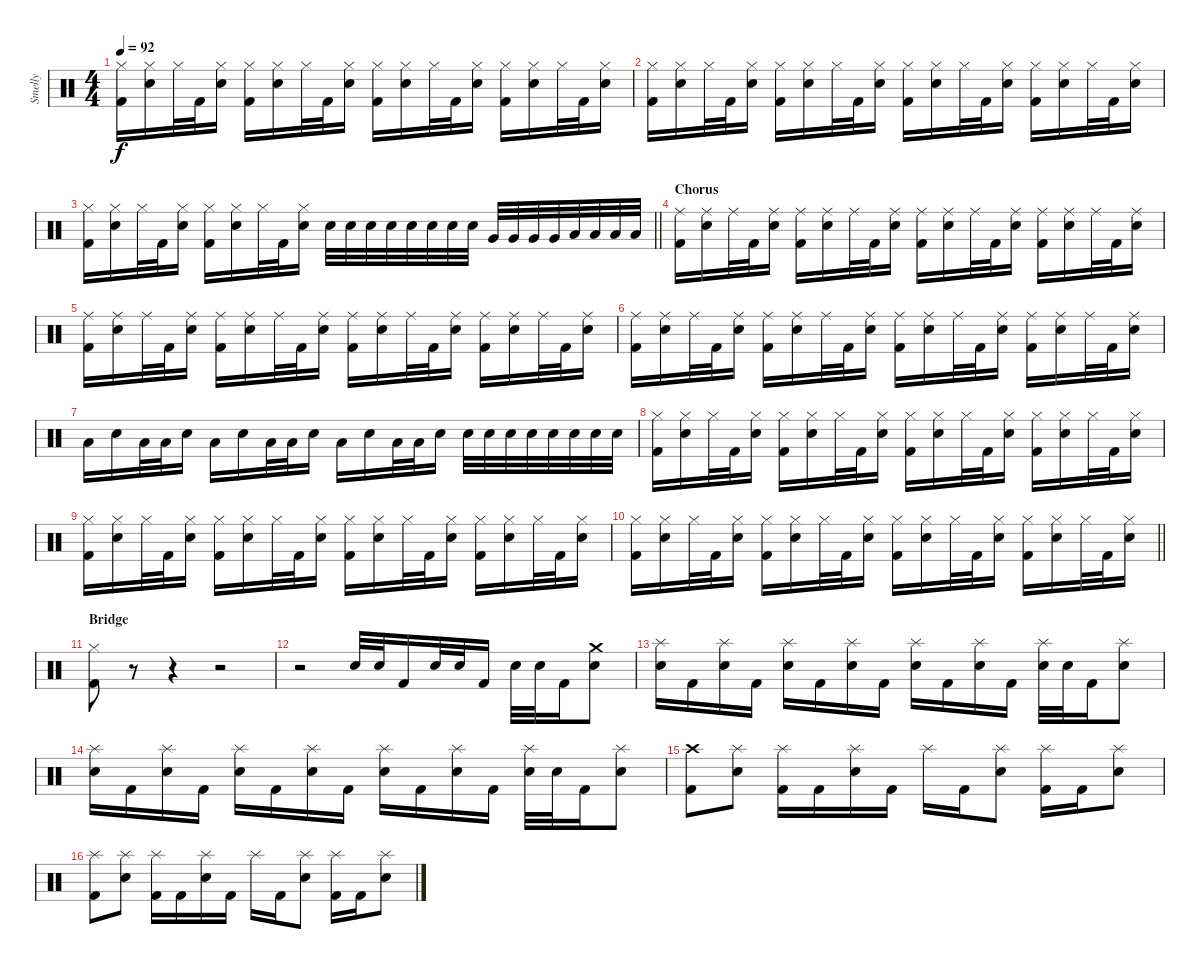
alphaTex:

\track ("Smelly" "Smelly") {instrument percussion}
\staff {score}
\articulation defaults
\ts (4 4)
\tempo 92
\clef neutral
\ks c
("Hi-Hat (closed)" "Kick (hit) 2").16{dy f} ("Hi-Hat (closed)" "Electric Snare (hit)").16 "Hi-Hat (closed)".32 "Kick (hit) 2".32 ("Hi-Hat (closed)" "Electric Snare (hit)").16 ("Hi-Hat (closed)" "Kick (hit) 2").16 ("Hi-Hat (closed)" "Electric Snare (hit)").16 "Hi-Hat (closed)".32 "Kick (hit) 2".32 ("Hi-Hat (closed)" "Electric Snare (hit)").16 ("Hi-Hat (closed)" "Kick (hit) 2").16 ("Hi-Hat (closed)" "Electric Snare (hit)").16 "Hi-Hat (closed)".32 "Kick (hit) 2".32 ("Hi-Hat (closed)" "Electric Snare (hit)").16 ("Hi-Hat (closed)" "Kick (hit) 2").16 ("Hi-Hat (closed)" "Electric Snare (hit)").16 "Hi-Hat (closed)".32 "Kick (hit) 2".32 ("Hi-Hat (closed)" "Electric Snare (hit)").16 |
("Hi-Hat (closed)" "Kick (hit) 2").16 ("Hi-Hat (closed)" "Electric Snare (hit)").16 "Hi-Hat (closed)".32 "Kick (hit) 2".32 ("Hi-Hat (closed)" "Electric Snare (hit)").16 ("Hi-Hat (closed)" "Kick (hit) 2").16 ("Hi-Hat (closed)" "Electric Snare (hit)").16 "Hi-Hat (closed)".32 "Kick (hit) 2".32 ("Hi-Hat (closed)" "Electric Snare (hit)").16 ("Hi-Hat (closed)" "Kick (hit) 2").16 ("Hi-Hat (closed)" "Electric Snare (hit)").16 "Hi-Hat (closed)".32 "Kick (hit) 2".32 ("Hi-Hat (closed)" "Electric Snare (hit)").16 ("Hi-Hat (closed)" "Kick (hit) 2").16 ("Hi-Hat (closed)" "Electric Snare (hit)").16 "Hi-Hat (closed)".32 "Kick (hit) 2".32 ("Hi-Hat (closed)" "Electric Snare (hit)").16 |
\barLineRight lightlight
("Hi-Hat (closed)" "Kick (hit) 2").16 ("Hi-Hat (closed)" "Electric Snare (hit)").16 "Hi-Hat (closed)".32 "Kick (hit) 2".32 ("Hi-Hat (closed)" "Electric Snare (hit)").16 ("Hi-Hat (closed)" "Kick (hit) 2").16 ("Hi-Hat (closed)" "Electric Snare (hit)").16 "Hi-Hat (closed)".32 "Kick (hit) 2".32 ("Hi-Hat (closed)" "Electric Snare (hit)").16 "Electric Snare (hit)".32 "Electric Snare (hit)".32 "Electric Snare (hit)".32 "Electric Snare (hit)".32 "Electric Snare (hit)".32 "Electric Snare (hit)".32 "Electric Snare (hit)".32 "Electric Snare (hit)".32 "Very Low Tom (hit)".32 "Very Low Tom (hit)".32 "Very Low Tom (hit)".32 "Very Low Tom (hit)".32 "Low Floor Tom (hit)".32 "Low Floor Tom (hit)".32 "Low Floor Tom (hit)".32 "Low Floor Tom (hit)".32 |
\section ("" "Chorus")
("Ride (middle)" "Kick (hit) 2").16 ("Ride (middle)" "Electric Snare (hit)").16 "Ride (middle)".32 "Kick (hit) 2".32 ("Ride (middle)" "Electric Snare (hit)").16 ("Ride (middle)" "Kick (hit) 2").16 ("Ride (middle)" "Electric Snare (hit)").16 "Ride (middle)".32 "Kick (hit) 2".32 ("Ride (middle)" "Electric Snare (hit)").16 ("Ride (middle)" "Kick (hit) 2").16 ("Ride (middle)" "Electric Snare (hit)").16 "Ride (middle)".32 "Kick (hit) 2".32 ("Ride (middle)" "Electric Snare (hit)").16 ("Ride (middle)" "Kick (hit) 2").16 ("Ride (middle)" "Electric Snare (hit)").16 "Ride (middle)".32 "Kick (hit) 2".32 ("Ride (middle)" "Electric Snare (hit)").16 |
("Ride (middle)" "Kick (hit) 2").16 ("Ride (middle)" "Electric Snare (hit)").16 "Ride (middle)".32 "Kick (hit) 2".32 ("Ride (middle)" "Electric Snare (hit)").16 ("Ride (middle)" "Kick (hit) 2").16 ("Ride (middle)" "Electric Snare (hit)").16 "Ride (middle)".32 "Kick (hit) 2".32 ("Ride (middle)" "Electric Snare (hit)").16 ("Ride (middle)" "Kick (hit) 2").16 ("Ride (middle)" "Electric Snare (hit)").16 "Ride (middle)".32 "Kick (hit) 2".32 ("Ride (middle)" "Electric Snare (hit)").16 ("Ride (middle)" "Kick (hit) 2").16 ("Ride (middle)" "Electric Snare (hit)").16 "Ride (middle)".32 "Kick (hit) 2".32 ("Ride (middle)" "Electric Snare (hit)").16 |
("Ride (middle)" "Kick (hit) 2").16 ("Ride (middle)" "Electric Snare (hit)").16 "Ride (middle)".32 "Kick (hit) 2".32 ("Ride (middle)" "Electric Snare (hit)").16 ("Ride (middle)" "Kick (hit) 2").16 ("Ride (middle)" "Electric Snare (hit)").16 "Ride (middle)".32 "Kick (hit) 2".32 ("Ride (middle)" "Electric Snare (hit)").16 ("Ride (middle)" "Kick (hit) 2").16 ("Ride (middle)" "Electric Snare (hit)").16 "Ride (middle)".32 "Kick (hit) 2".32 ("Ride (middle)" "Electric Snare (hit)").16 ("Ride (middle)" "Kick (hit) 2").16 ("Ride (middle)" "Electric Snare (hit)").16 "Ride (middle)".32 "Kick (hit) 2".32 ("Ride (middle)" "Electric Snare (hit)").16 |
"Low Floor Tom (hit)".16 "Electric Snare (hit)".16 "Low Floor Tom (hit)".32 "Low Floor Tom (hit)".32 "Electric Snare (hit)".16 "Low Floor Tom (hit)".16 "Electric Snare (hit)".16 "Low Floor Tom (hit)".32 "Low Floor Tom (hit)".32 "Electric Snare (hit)".16 "Low Floor Tom (hit)".16 "Electric Snare (hit)".16 "Low Floor Tom (hit)".32 "Low Floor Tom (hit)".32 "Electric Snare (hit)".16 "Electric Snare (hit)".32 "Electric Snare (hit)".32 "Electric Snare (hit)".32 "Electric Snare (hit)".32 "Electric Snare (hit)".32 "Electric Snare (hit)".32 "Electric Snare (hit)".32 "Electric Snare (hit)".32 |
("Hi-Hat (closed)" "Kick (hit) 2").16 ("Hi-Hat (closed)" "Electric Snare (hit)").16 "Hi-Hat (closed)".32 "Kick (hit) 2".32 ("Hi-Hat (closed)" "Electric Snare (hit)").16 ("Hi-Hat (closed)" "Kick (hit) 2").16 ("Hi-Hat (closed)" "Electric Snare (hit)").16 "Hi-Hat (closed)".32 "Kick (hit) 2".32 ("Hi-Hat (closed)" "Electric Snare (hit)").16 ("Hi-Hat (closed)" "Kick (hit) 2").16 ("Hi-Hat (closed)" "Electric Snare (hit)").16 "Hi-Hat (closed)".32 "Kick (hit) 2".32 ("Hi-Hat (closed)" "Electric Snare (hit)").16 ("Hi-Hat (closed)" "Kick (hit) 2").16 ("Hi-Hat (closed)" "Electric Snare (hit)").16 "Hi-Hat (closed)".32 "Kick (hit) 2".32 ("Hi-Hat (closed)" "Electric Snare (hit)").16 |
("Hi-Hat (closed)" "Kick (hit) 2").16 ("Hi-Hat (closed)" "Electric Snare (hit)").16 "Hi-Hat (closed)".32 "Kick (hit) 2".32 ("Hi-Hat (closed)" "Electric Snare (hit)").16 ("Hi-Hat (closed)" "Kick (hit) 2").16 ("Hi-Hat (closed)" "Electric Snare (hit)").16 "Hi-Hat (closed)".32 "Kick (hit) 2".32 ("Hi-Hat (closed)" "Electric Snare (hit)").16 ("Hi-Hat (closed)" "Kick (hit) 2").16 ("Hi-Hat (closed)" "Electric Snare (hit)").16 "Hi-Hat (closed)".32 "Kick (hit) 2".32 ("Hi-Hat (closed)" "Electric Snare (hit)").16 ("Hi-Hat (closed)" "Kick (hit) 2").16 ("Hi-Hat (closed)" "Electric Snare (hit)").16 "Hi-Hat (closed)".32 "Kick (hit) 2".32 ("Hi-Hat (closed)" "Electric Snare (hit)").16 |
\barLineRight lightlight
("Hi-Hat (closed)" "Kick (hit) 2").16 ("Hi-Hat (closed)" "Electric Snare (hit)").16 "Hi-Hat (closed)".32 "Kick (hit) 2".32 ("Hi-Hat (closed)" "Electric Snare (hit)").16 ("Hi-Hat (closed)" "Kick (hit) 2").16 ("Hi-Hat (closed)" "Electric Snare (hit)").16 "Hi-Hat (closed)".32 "Kick (hit) 2".32 ("Hi-Hat (closed)" "Electric Snare (hit)").16 ("Hi-Hat (closed)" "Kick (hit) 2").16 ("Hi-Hat (closed)" "Electric Snare (hit)").16 "Hi-Hat (closed)".32 "Kick (hit) 2".32 ("Hi-Hat (closed)" "Electric Snare (hit)").16 ("Hi-Hat (closed)" "Kick (hit) 2").16 ("Hi-Hat (closed)" "Electric Snare (hit)").16 "Hi-Hat (closed)".32 "Kick (hit) 2".32 ("Hi-Hat (closed)" "Electric Snare (hit)").16 |
\section ("" "Bridge")
("Hi-Hat (closed)" "Kick (hit) 2").8 r.8 r.4 r.2 |
r.2 "Electric Snare (hit)".32 "Electric Snare (hit)".32 "Kick (hit) 2".16 "Electric Snare (hit)".32 "Electric Snare (hit)".32 "Kick (hit) 2".16 "Electric Snare (hit)".32 "Electric Snare (hit)".32 "Kick (hit) 2".16 ("Crash medium (hit)" "Electric Snare (hit)").8 |
("Splash (hit)" "Electric Snare (hit)").16 "Kick (hit) 2".16 ("Splash (hit)" "Electric Snare (hit)").16 "Kick (hit) 2".16 ("Splash (hit)" "Electric Snare (hit)").16 "Kick (hit) 2".16 ("Splash (hit)" "Electric Snare (hit)").16 "Kick (hit) 2".16 ("Splash (hit)" "Electric Snare (hit)").16 "Kick (hit) 2".16 ("Splash (hit)" "Electric Snare (hit)").16 "Kick (hit) 2".16 ("Splash (hit)" "Electric Snare (hit)").32 "Electric Snare (hit)".32 "Kick (hit) 2".16 ("Splash (hit)" "Electric Snare (hit)").8 |
("Splash (hit)" "Electric Snare (hit)").16 "Kick (hit) 2".16 ("Splash (hit)" "Electric Snare (hit)").16 "Kick (hit) 2".16 ("Splash (hit)" "Electric Snare (hit)").16 "Kick (hit) 2".16 ("Splash (hit)" "Electric Snare (hit)").16 "Kick (hit) 2".16 ("Splash (hit)" "Electric Snare (hit)").16 "Kick (hit) 2".16 ("Splash (hit)" "Electric Snare (hit)").16 "Kick (hit) 2".16 ("Splash (hit)" "Electric Snare (hit)").32 "Electric Snare (hit)".32 "Kick (hit) 2".16 ("Splash (hit)" "Electric Snare (hit)").8 |
("Crash high (hit)" "Kick (hit) 2").8 ("Splash (hit)" "Electric Snare (hit)").8 ("Splash (hit)" "Kick (hit) 2").16 "Kick (hit) 2".16 ("Splash (hit)" "Electric Snare (hit)").16 "Kick (hit) 2".16 "Splash (hit)".16 "Kick (hit) 2".16 ("Splash (hit)" "Electric Snare (hit)").8 ("Splash (hit)" "Kick (hit) 2").16 "Kick (hit) 2".16 ("Splash (hit)" "Electric Snare (hit)").8 |
("Splash (hit)" "Kick (hit) 2").8 ("Splash (hit)" "Electric Snare (hit)").8 ("Splash (hit)" "Kick (hit) 2").16 "Kick (hit) 2".16 ("Splash (hit)" "Electric Snare (hit)").16 "Kick (hit) 2".16 "Splash (hit)".16 "Kick (hit) 2".16 ("Splash (hit)" "Electric Snare (hit)").8 ("Splash (hit)" "Kick (hit) 2").16 "Kick (hit) 2".16 ("Splash (hit)" "Electric Snare (hit)").8
